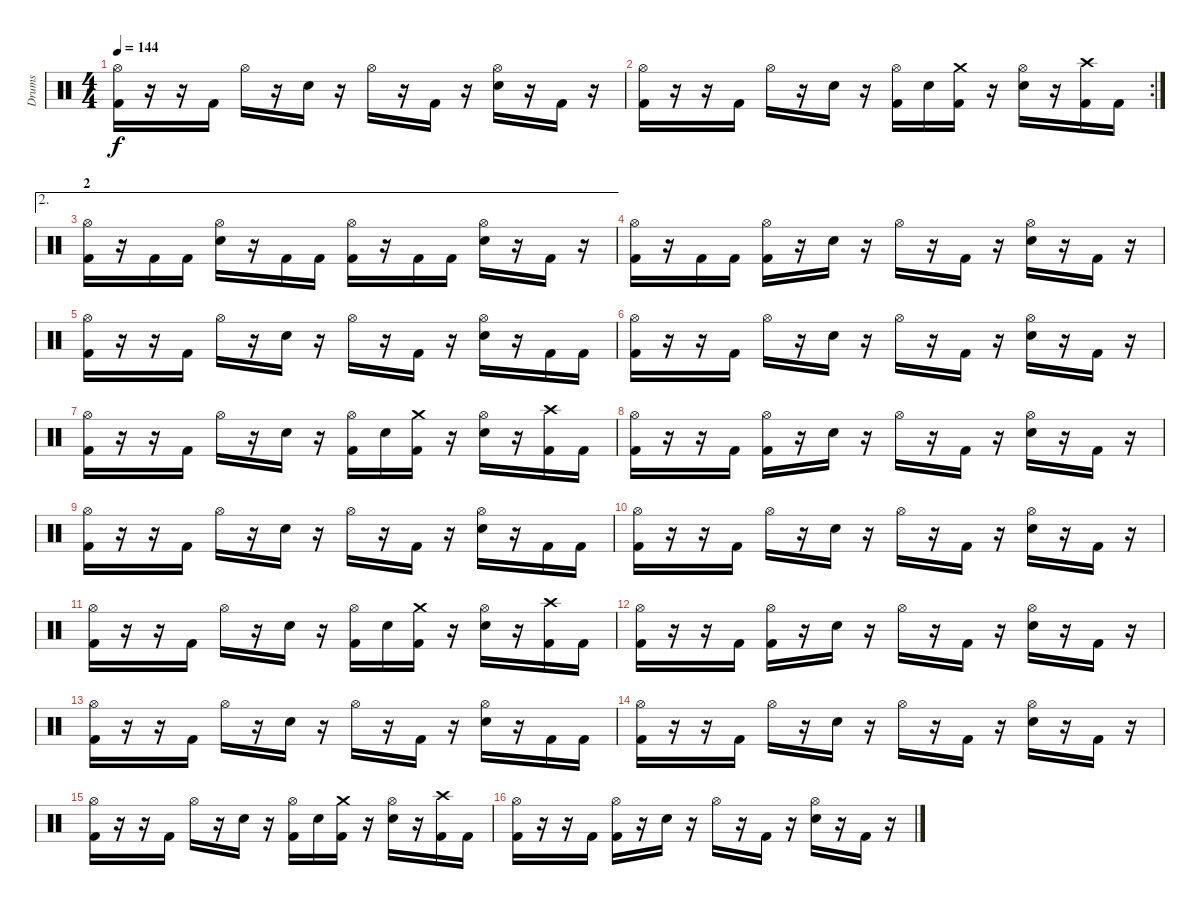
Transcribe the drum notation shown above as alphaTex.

\track ("Drums" "Drums") {instrument percussion}
\staff {score}
\articulation defaults
\ts (4 4)
\tempo 144
\clef neutral
\ks c
("Hi-Hat (open)" "Kick (hit) 2").16{dy f} r.16 r.16 "Kick (hit) 2".16 "Hi-Hat (open)".16 r.16 "Snare (hit) 2".16 r.16 "Hi-Hat (open)".16 r.16 "Kick (hit) 2".16 r.16 ("Hi-Hat (open)" "Snare (hit) 2").16 r.16 "Kick (hit) 2".16 r.16 |
\rc 2
("Hi-Hat (open)" "Kick (hit) 2").16 r.16 r.16 "Kick (hit) 2".16 "Hi-Hat (open)".16 r.16 "Snare (hit) 2".16 r.16 ("Hi-Hat (open)" "Kick (hit) 2").16 "Snare (hit) 2".16 ("Crash medium (hit)" "Kick (hit) 2").16 r.16 ("Hi-Hat (open)" "Snare (hit) 2").16 r.16 ("Crash high (hit)" "Kick (hit) 2").16 "Kick (hit) 2".16 |
\ae 2
\section ("" "2")
("Hi-Hat (open)" "Kick (hit) 2").16 r.16 "Kick (hit) 2".16 "Kick (hit) 2".16 ("Hi-Hat (open)" "Snare (hit) 2").16 r.16 "Kick (hit) 2".16 "Kick (hit) 2".16 ("Hi-Hat (open)" "Kick (hit) 2").16 r.16 "Kick (hit) 2".16 "Kick (hit) 2".16 ("Hi-Hat (open)" "Snare (hit) 2").16 r.16 "Kick (hit) 2".16 r.16 |
("Hi-Hat (open)" "Kick (hit) 2").16 r.16 "Kick (hit) 2".16 "Kick (hit) 2".16 ("Hi-Hat (open)" "Kick (hit) 2").16 r.16 "Snare (hit) 2".16 r.16 "Hi-Hat (open)".16 r.16 "Kick (hit) 2".16 r.16 ("Hi-Hat (open)" "Snare (hit) 2").16 r.16 "Kick (hit) 2".16 r.16 |
("Hi-Hat (open)" "Kick (hit) 2").16 r.16 r.16 "Kick (hit) 2".16 "Hi-Hat (open)".16 r.16 "Snare (hit) 2".16 r.16 "Hi-Hat (open)".16 r.16 "Kick (hit) 2".16 r.16 ("Hi-Hat (open)" "Snare (hit) 2").16 r.16 "Kick (hit) 2".16 "Kick (hit) 2".16 |
("Hi-Hat (open)" "Kick (hit) 2").16 r.16 r.16 "Kick (hit) 2".16 "Hi-Hat (open)".16 r.16 "Snare (hit) 2".16 r.16 "Hi-Hat (open)".16 r.16 "Kick (hit) 2".16 r.16 ("Hi-Hat (open)" "Snare (hit) 2").16 r.16 "Kick (hit) 2".16 r.16 |
("Hi-Hat (open)" "Kick (hit) 2").16 r.16 r.16 "Kick (hit) 2".16 "Hi-Hat (open)".16 r.16 "Snare (hit) 2".16 r.16 ("Hi-Hat (open)" "Kick (hit) 2").16 "Snare (hit) 2".16 ("Crash medium (hit)" "Kick (hit) 2").16 r.16 ("Hi-Hat (open)" "Snare (hit) 2").16 r.16 ("Crash high (hit)" "Kick (hit) 2").16 "Kick (hit) 2".16 |
("Hi-Hat (open)" "Kick (hit) 2").16 r.16 r.16 "Kick (hit) 2".16 ("Hi-Hat (open)" "Kick (hit) 2").16 r.16 "Snare (hit) 2".16 r.16 "Hi-Hat (open)".16 r.16 "Kick (hit) 2".16 r.16 ("Hi-Hat (open)" "Snare (hit) 2").16 r.16 "Kick (hit) 2".16 r.16 |
("Hi-Hat (open)" "Kick (hit) 2").16 r.16 r.16 "Kick (hit) 2".16 "Hi-Hat (open)".16 r.16 "Snare (hit) 2".16 r.16 "Hi-Hat (open)".16 r.16 "Kick (hit) 2".16 r.16 ("Hi-Hat (open)" "Snare (hit) 2").16 r.16 "Kick (hit) 2".16 "Kick (hit) 2".16 |
("Hi-Hat (open)" "Kick (hit) 2").16 r.16 r.16 "Kick (hit) 2".16 "Hi-Hat (open)".16 r.16 "Snare (hit) 2".16 r.16 "Hi-Hat (open)".16 r.16 "Kick (hit) 2".16 r.16 ("Hi-Hat (open)" "Snare (hit) 2").16 r.16 "Kick (hit) 2".16 r.16 |
("Hi-Hat (open)" "Kick (hit) 2").16 r.16 r.16 "Kick (hit) 2".16 "Hi-Hat (open)".16 r.16 "Snare (hit) 2".16 r.16 ("Hi-Hat (open)" "Kick (hit) 2").16 "Snare (hit) 2".16 ("Crash medium (hit)" "Kick (hit) 2").16 r.16 ("Hi-Hat (open)" "Snare (hit) 2").16 r.16 ("Crash high (hit)" "Kick (hit) 2").16 "Kick (hit) 2".16 |
("Hi-Hat (open)" "Kick (hit) 2").16 r.16 r.16 "Kick (hit) 2".16 ("Hi-Hat (open)" "Kick (hit) 2").16 r.16 "Snare (hit) 2".16 r.16 "Hi-Hat (open)".16 r.16 "Kick (hit) 2".16 r.16 ("Hi-Hat (open)" "Snare (hit) 2").16 r.16 "Kick (hit) 2".16 r.16 |
("Hi-Hat (open)" "Kick (hit) 2").16 r.16 r.16 "Kick (hit) 2".16 "Hi-Hat (open)".16 r.16 "Snare (hit) 2".16 r.16 "Hi-Hat (open)".16 r.16 "Kick (hit) 2".16 r.16 ("Hi-Hat (open)" "Snare (hit) 2").16 r.16 "Kick (hit) 2".16 "Kick (hit) 2".16 |
("Hi-Hat (open)" "Kick (hit) 2").16 r.16 r.16 "Kick (hit) 2".16 "Hi-Hat (open)".16 r.16 "Snare (hit) 2".16 r.16 "Hi-Hat (open)".16 r.16 "Kick (hit) 2".16 r.16 ("Hi-Hat (open)" "Snare (hit) 2").16 r.16 "Kick (hit) 2".16 r.16 |
("Hi-Hat (open)" "Kick (hit) 2").16 r.16 r.16 "Kick (hit) 2".16 "Hi-Hat (open)".16 r.16 "Snare (hit) 2".16 r.16 ("Hi-Hat (open)" "Kick (hit) 2").16 "Snare (hit) 2".16 ("Crash medium (hit)" "Kick (hit) 2").16 r.16 ("Hi-Hat (open)" "Snare (hit) 2").16 r.16 ("Crash high (hit)" "Kick (hit) 2").16 "Kick (hit) 2".16 |
("Hi-Hat (open)" "Kick (hit) 2").16 r.16 r.16 "Kick (hit) 2".16 ("Hi-Hat (open)" "Kick (hit) 2").16 r.16 "Snare (hit) 2".16 r.16 "Hi-Hat (open)".16 r.16 "Kick (hit) 2".16 r.16 ("Hi-Hat (open)" "Snare (hit) 2").16 r.16 "Kick (hit) 2".16 r.16
